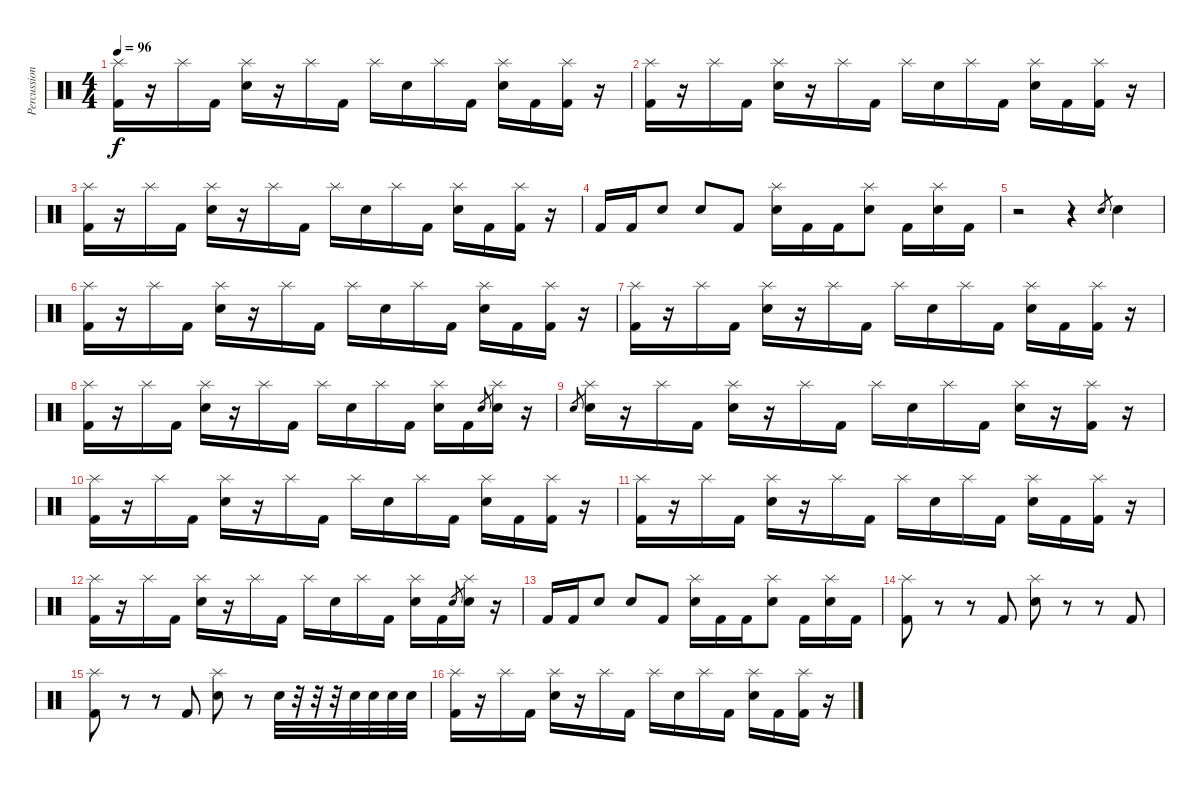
\track ("Percussion" "Percussion") {instrument percussion}
\staff {score}
\articulation defaults
\ts (4 4)
\tempo 96
\clef neutral
\ks c
("Splash (hit)" "Kick (hit) 2").16{dy f} r.16 "Splash (hit)".16 "Kick (hit) 2".16 ("Splash (hit)" "Snare (hit) 2").16 r.16 "Splash (hit)".16 "Kick (hit) 2".16 "Splash (hit)".16 "Snare (hit) 2".16 "Splash (hit)".16 "Kick (hit) 2".16 ("Splash (hit)" "Snare (hit) 2").16 "Kick (hit) 2".16 ("Splash (hit)" "Kick (hit) 2").16 r.16 |
("Splash (hit)" "Kick (hit) 2").16 r.16 "Splash (hit)".16 "Kick (hit) 2".16 ("Splash (hit)" "Snare (hit) 2").16 r.16 "Splash (hit)".16 "Kick (hit) 2".16 "Splash (hit)".16 "Snare (hit) 2".16 "Splash (hit)".16 "Kick (hit) 2".16 ("Splash (hit)" "Snare (hit) 2").16 "Kick (hit) 2".16 ("Splash (hit)" "Kick (hit) 2").16 r.16 |
("Splash (hit)" "Kick (hit) 2").16 r.16 "Splash (hit)".16 "Kick (hit) 2".16 ("Splash (hit)" "Snare (hit) 2").16 r.16 "Splash (hit)".16 "Kick (hit) 2".16 "Splash (hit)".16 "Snare (hit) 2".16 "Splash (hit)".16 "Kick (hit) 2".16 ("Splash (hit)" "Snare (hit) 2").16 "Kick (hit) 2".16 ("Splash (hit)" "Kick (hit) 2").16 r.16 |
"Kick (hit) 2".16 "Kick (hit) 2".16 "Snare (hit) 2".8 "Snare (hit) 2".8 "Kick (hit) 2".8 ("Splash (hit)" "Snare (hit) 2").16 "Kick (hit) 2".16 "Kick (hit) 2".16 ("Splash (hit)" "Snare (hit) 2").8 "Kick (hit) 2".16 ("Splash (hit)" "Snare (hit) 2").16 "Kick (hit) 2".16 |
r.2 r.4 "Snare (hit) 2".8{gr} "Snare (hit) 2".4 |
("Splash (hit)" "Kick (hit) 2").16 r.16 "Splash (hit)".16 "Kick (hit) 2".16 ("Splash (hit)" "Snare (hit) 2").16 r.16 "Splash (hit)".16 "Kick (hit) 2".16 "Splash (hit)".16 "Snare (hit) 2".16 "Splash (hit)".16 "Kick (hit) 2".16 ("Splash (hit)" "Snare (hit) 2").16 "Kick (hit) 2".16 ("Splash (hit)" "Kick (hit) 2").16 r.16 |
("Splash (hit)" "Kick (hit) 2").16 r.16 "Splash (hit)".16 "Kick (hit) 2".16 ("Splash (hit)" "Snare (hit) 2").16 r.16 "Splash (hit)".16 "Kick (hit) 2".16 "Splash (hit)".16 "Snare (hit) 2".16 "Splash (hit)".16 "Kick (hit) 2".16 ("Splash (hit)" "Snare (hit) 2").16 "Kick (hit) 2".16 ("Splash (hit)" "Kick (hit) 2").16 r.16 |
("Splash (hit)" "Kick (hit) 2").16 r.16 "Splash (hit)".16 "Kick (hit) 2".16 ("Splash (hit)" "Snare (hit) 2").16 r.16 "Splash (hit)".16 "Kick (hit) 2".16 "Splash (hit)".16 "Snare (hit) 2".16 "Splash (hit)".16 "Kick (hit) 2".16 ("Splash (hit)" "Snare (hit) 2").16 "Kick (hit) 2".16 "Snare (hit) 2".8{gr} ("Splash (hit)" "Snare (hit) 2").16 r.16 |
"Snare (hit) 2".8{gr} ("Splash (hit)" "Snare (hit) 2").16 r.16 "Splash (hit)".16 "Kick (hit) 2".16 ("Splash (hit)" "Snare (hit) 2").16 r.16 "Splash (hit)".16 "Kick (hit) 2".16 "Splash (hit)".16 "Snare (hit) 2".16 "Splash (hit)".16 "Kick (hit) 2".16 ("Splash (hit)" "Snare (hit) 2").16 r.16 ("Splash (hit)" "Kick (hit) 2").16 r.16 |
("Splash (hit)" "Kick (hit) 2").16 r.16 "Splash (hit)".16 "Kick (hit) 2".16 ("Splash (hit)" "Snare (hit) 2").16 r.16 "Splash (hit)".16 "Kick (hit) 2".16 "Splash (hit)".16 "Snare (hit) 2".16 "Splash (hit)".16 "Kick (hit) 2".16 ("Splash (hit)" "Snare (hit) 2").16 "Kick (hit) 2".16 ("Splash (hit)" "Kick (hit) 2").16 r.16 |
("Splash (hit)" "Kick (hit) 2").16 r.16 "Splash (hit)".16 "Kick (hit) 2".16 ("Splash (hit)" "Snare (hit) 2").16 r.16 "Splash (hit)".16 "Kick (hit) 2".16 "Splash (hit)".16 "Snare (hit) 2".16 "Splash (hit)".16 "Kick (hit) 2".16 ("Splash (hit)" "Snare (hit) 2").16 "Kick (hit) 2".16 ("Splash (hit)" "Kick (hit) 2").16 r.16 |
("Splash (hit)" "Kick (hit) 2").16 r.16 "Splash (hit)".16 "Kick (hit) 2".16 ("Splash (hit)" "Snare (hit) 2").16 r.16 "Splash (hit)".16 "Kick (hit) 2".16 "Splash (hit)".16 "Snare (hit) 2".16 "Splash (hit)".16 "Kick (hit) 2".16 ("Splash (hit)" "Snare (hit) 2").16 "Kick (hit) 2".16 "Snare (hit) 2".8{gr} ("Splash (hit)" "Snare (hit) 2").16 r.16 |
"Kick (hit) 2".16 "Kick (hit) 2".16 "Snare (hit) 2".8 "Snare (hit) 2".8 "Kick (hit) 2".8 ("Splash (hit)" "Snare (hit) 2").16 "Kick (hit) 2".16 "Kick (hit) 2".16 ("Splash (hit)" "Snare (hit) 2").8 "Kick (hit) 2".16 ("Splash (hit)" "Snare (hit) 2").16 "Kick (hit) 2".16 |
("Splash (hit)" "Kick (hit) 2").8 r.8 r.8 "Kick (hit) 2".8 ("Splash (hit)" "Snare (hit) 2").8 r.8 r.8 "Kick (hit) 2".8 |
("Splash (hit)" "Kick (hit) 2").8 r.8 r.8 "Kick (hit) 2".8 ("Splash (hit)" "Snare (hit) 2").8 r.8 "Snare (hit) 2".32 r.32 r.32 r.32 "Snare (hit) 2".32 "Snare (hit) 2".32 "Snare (hit) 2".32 "Snare (hit) 2".32 |
("Splash (hit)" "Kick (hit) 2").16 r.16 "Splash (hit)".16 "Kick (hit) 2".16 ("Splash (hit)" "Snare (hit) 2").16 r.16 "Splash (hit)".16 "Kick (hit) 2".16 "Splash (hit)".16 "Snare (hit) 2".16 "Splash (hit)".16 "Kick (hit) 2".16 ("Splash (hit)" "Snare (hit) 2").16 "Kick (hit) 2".16 ("Splash (hit)" "Kick (hit) 2").16 r.16
